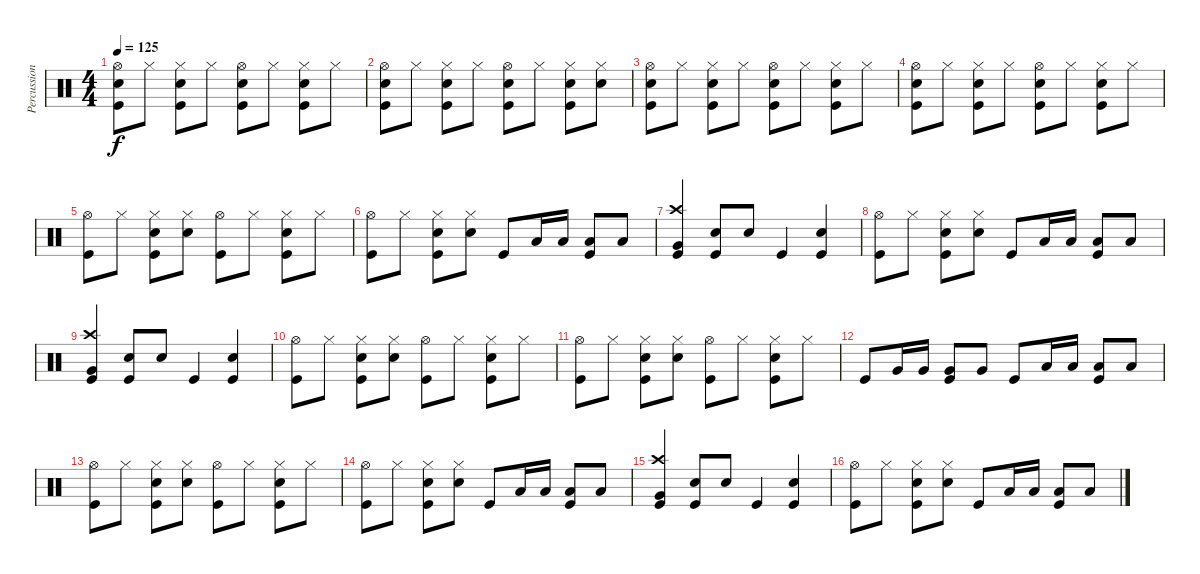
\track ("Percussion" "Percussion") {instrument percussion}
\staff {score}
\articulation defaults
\ts (4 4)
\tempo 125
\clef neutral
\ks c
("Hi-Hat (open)" "Snare (hit) 2" "Kick (hit)").8{dy f} "Hi-Hat (closed)".8 ("Hi-Hat (closed)" "Snare (hit) 2" "Kick (hit)").8 "Hi-Hat (closed)".8 ("Hi-Hat (open)" "Snare (hit) 2" "Kick (hit)").8 "Hi-Hat (closed)".8 ("Hi-Hat (closed)" "Snare (hit) 2" "Kick (hit)").8 "Hi-Hat (closed)".8 |
("Hi-Hat (open)" "Snare (hit) 2" "Kick (hit)").8 "Hi-Hat (closed)".8 ("Hi-Hat (closed)" "Snare (hit) 2" "Kick (hit)").8 "Hi-Hat (closed)".8 ("Hi-Hat (open)" "Snare (hit) 2" "Kick (hit)").8 "Hi-Hat (closed)".8 ("Hi-Hat (closed)" "Snare (hit) 2" "Kick (hit)").8 ("Hi-Hat (closed)" "Snare (hit) 2").8 |
("Hi-Hat (open)" "Snare (hit) 2" "Kick (hit)").8 "Hi-Hat (closed)".8 ("Hi-Hat (closed)" "Snare (hit) 2" "Kick (hit)").8 "Hi-Hat (closed)".8 ("Hi-Hat (open)" "Snare (hit) 2" "Kick (hit)").8 "Hi-Hat (closed)".8 ("Hi-Hat (closed)" "Snare (hit) 2" "Kick (hit)").8 "Hi-Hat (closed)".8 |
("Hi-Hat (open)" "Snare (hit) 2" "Kick (hit)").8 "Hi-Hat (closed)".8 ("Hi-Hat (closed)" "Snare (hit) 2" "Kick (hit)").8 "Hi-Hat (closed)".8 ("Hi-Hat (open)" "Snare (hit) 2" "Kick (hit)").8 "Hi-Hat (closed)".8 ("Hi-Hat (closed)" "Snare (hit) 2" "Kick (hit)").8 "Hi-Hat (closed)".8 |
("Hi-Hat (open)" "Kick (hit)").8 "Hi-Hat (closed)".8 ("Hi-Hat (closed)" "Snare (hit) 2" "Kick (hit)").8 ("Hi-Hat (closed)" "Snare (hit) 2").8 ("Hi-Hat (open)" "Kick (hit)").8 "Hi-Hat (closed)".8 ("Hi-Hat (closed)" "Snare (hit) 2" "Kick (hit)").8 "Hi-Hat (closed)".8 |
("Hi-Hat (open)" "Kick (hit)").8 "Hi-Hat (closed)".8 ("Hi-Hat (closed)" "Snare (hit) 2" "Kick (hit)").8 ("Hi-Hat (closed)" "Snare (hit) 2").8 "Kick (hit)".8 "Low Floor Tom (hit)".16 "Low Floor Tom (hit)".16 ("Low Floor Tom (hit)" "Kick (hit)").8 "Low Floor Tom (hit)".8 |
("Crash high (hit)" "Very Low Tom (hit)" "Kick (hit)").4 ("Snare (hit) 2" "Kick (hit)").8 "Snare (hit) 2".8 "Kick (hit)".4 ("Snare (hit) 2" "Kick (hit)").4 |
("Hi-Hat (open)" "Kick (hit)").8 "Hi-Hat (closed)".8 ("Hi-Hat (closed)" "Snare (hit) 2" "Kick (hit)").8 ("Hi-Hat (closed)" "Snare (hit) 2").8 "Kick (hit)".8 "Low Floor Tom (hit)".16 "Low Floor Tom (hit)".16 ("Low Floor Tom (hit)" "Kick (hit)").8 "Low Floor Tom (hit)".8 |
("Crash high (hit)" "Very Low Tom (hit)" "Kick (hit)").4 ("Snare (hit) 2" "Kick (hit)").8 "Snare (hit) 2".8 "Kick (hit)".4 ("Snare (hit) 2" "Kick (hit)").4 |
("Hi-Hat (open)" "Kick (hit)").8 "Hi-Hat (closed)".8 ("Hi-Hat (closed)" "Snare (hit) 2" "Kick (hit)").8 ("Hi-Hat (closed)" "Snare (hit) 2").8 ("Hi-Hat (open)" "Kick (hit)").8 "Hi-Hat (closed)".8 ("Hi-Hat (closed)" "Snare (hit) 2" "Kick (hit)").8 "Hi-Hat (closed)".8 |
("Hi-Hat (open)" "Kick (hit)").8 "Hi-Hat (closed)".8 ("Hi-Hat (closed)" "Snare (hit) 2" "Kick (hit)").8 ("Hi-Hat (closed)" "Snare (hit) 2").8 ("Hi-Hat (open)" "Kick (hit)").8 "Hi-Hat (closed)".8 ("Hi-Hat (closed)" "Snare (hit) 2" "Kick (hit)").8 "Hi-Hat (closed)".8 |
"Kick (hit)".8 "Very Low Tom (hit)".16 "Very Low Tom (hit)".16 ("Very Low Tom (hit)" "Kick (hit)").8 "Very Low Tom (hit)".8 "Kick (hit)".8 "Low Floor Tom (hit)".16 "Low Floor Tom (hit)".16 ("Low Floor Tom (hit)" "Kick (hit)").8 "Low Floor Tom (hit)".8 |
("Hi-Hat (open)" "Kick (hit)").8 "Hi-Hat (closed)".8 ("Hi-Hat (closed)" "Snare (hit) 2" "Kick (hit)").8 ("Hi-Hat (closed)" "Snare (hit) 2").8 ("Hi-Hat (open)" "Kick (hit)").8 "Hi-Hat (closed)".8 ("Hi-Hat (closed)" "Snare (hit) 2" "Kick (hit)").8 "Hi-Hat (closed)".8 |
("Hi-Hat (open)" "Kick (hit)").8 "Hi-Hat (closed)".8 ("Hi-Hat (closed)" "Snare (hit) 2" "Kick (hit)").8 ("Hi-Hat (closed)" "Snare (hit) 2").8 "Kick (hit)".8 "Low Floor Tom (hit)".16 "Low Floor Tom (hit)".16 ("Low Floor Tom (hit)" "Kick (hit)").8 "Low Floor Tom (hit)".8 |
("Crash high (hit)" "Very Low Tom (hit)" "Kick (hit)").4 ("Snare (hit) 2" "Kick (hit)").8 "Snare (hit) 2".8 "Kick (hit)".4 ("Snare (hit) 2" "Kick (hit)").4 |
("Hi-Hat (open)" "Kick (hit)").8 "Hi-Hat (closed)".8 ("Hi-Hat (closed)" "Snare (hit) 2" "Kick (hit)").8 ("Hi-Hat (closed)" "Snare (hit) 2").8 "Kick (hit)".8 "Low Floor Tom (hit)".16 "Low Floor Tom (hit)".16 ("Low Floor Tom (hit)" "Kick (hit)").8 "Low Floor Tom (hit)".8
